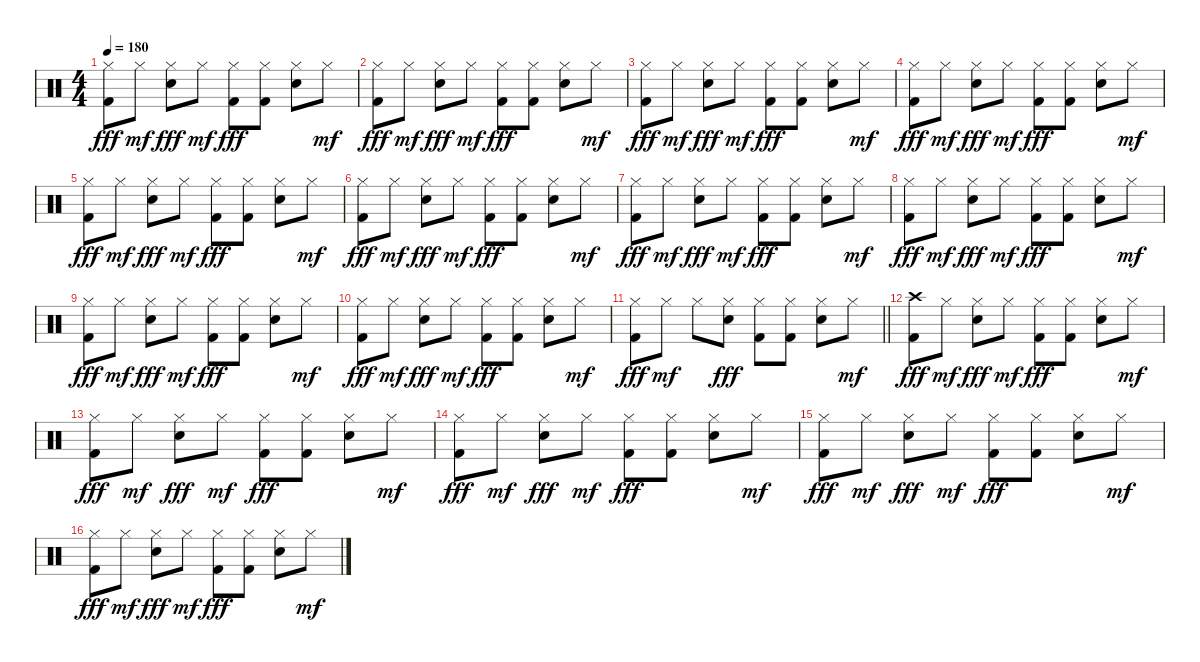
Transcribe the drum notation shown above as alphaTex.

\track "" {instrument percussion}
\staff {score}
\articulation defaults
\ts (4 4)
\tempo 180
\clef neutral
\ks c
("Hi-Hat (closed)" "Kick (hit) 2").8{dy fff} "Hi-Hat (closed)".8{dy mf} ("Hi-Hat (closed)" "Snare (hit) 2").8{dy fff} "Hi-Hat (closed)".8{dy mf} ("Hi-Hat (closed)" "Kick (hit) 2").8{dy fff} ("Hi-Hat (closed)" "Kick (hit) 2").8 ("Hi-Hat (closed)" "Snare (hit) 2").8 "Hi-Hat (closed)".8{dy mf} |
("Hi-Hat (closed)" "Kick (hit) 2").8{dy fff} "Hi-Hat (closed)".8{dy mf} ("Hi-Hat (closed)" "Snare (hit) 2").8{dy fff} "Hi-Hat (closed)".8{dy mf} ("Hi-Hat (closed)" "Kick (hit) 2").8{dy fff} ("Hi-Hat (closed)" "Kick (hit) 2").8 ("Hi-Hat (closed)" "Snare (hit) 2").8 "Hi-Hat (closed)".8{dy mf} |
("Hi-Hat (closed)" "Kick (hit) 2").8{dy fff} "Hi-Hat (closed)".8{dy mf} ("Hi-Hat (closed)" "Snare (hit) 2").8{dy fff} "Hi-Hat (closed)".8{dy mf} ("Hi-Hat (closed)" "Kick (hit) 2").8{dy fff} ("Hi-Hat (closed)" "Kick (hit) 2").8 ("Hi-Hat (closed)" "Snare (hit) 2").8 "Hi-Hat (closed)".8{dy mf} |
("Hi-Hat (closed)" "Kick (hit) 2").8{dy fff} "Hi-Hat (closed)".8{dy mf} ("Hi-Hat (closed)" "Snare (hit) 2").8{dy fff} "Hi-Hat (closed)".8{dy mf} ("Hi-Hat (closed)" "Kick (hit) 2").8{dy fff} ("Hi-Hat (closed)" "Kick (hit) 2").8 ("Hi-Hat (closed)" "Snare (hit) 2").8 "Hi-Hat (closed)".8{dy mf} |
("Hi-Hat (closed)" "Kick (hit) 2").8{dy fff} "Hi-Hat (closed)".8{dy mf} ("Hi-Hat (closed)" "Snare (hit) 2").8{dy fff} "Hi-Hat (closed)".8{dy mf} ("Hi-Hat (closed)" "Kick (hit) 2").8{dy fff} ("Hi-Hat (closed)" "Kick (hit) 2").8 ("Hi-Hat (closed)" "Snare (hit) 2").8 "Hi-Hat (closed)".8{dy mf} |
("Hi-Hat (closed)" "Kick (hit) 2").8{dy fff} "Hi-Hat (closed)".8{dy mf} ("Hi-Hat (closed)" "Snare (hit) 2").8{dy fff} "Hi-Hat (closed)".8{dy mf} ("Hi-Hat (closed)" "Kick (hit) 2").8{dy fff} ("Hi-Hat (closed)" "Kick (hit) 2").8 ("Hi-Hat (closed)" "Snare (hit) 2").8 "Hi-Hat (closed)".8{dy mf} |
("Hi-Hat (closed)" "Kick (hit) 2").8{dy fff} "Hi-Hat (closed)".8{dy mf} ("Hi-Hat (closed)" "Snare (hit) 2").8{dy fff} "Hi-Hat (closed)".8{dy mf} ("Hi-Hat (closed)" "Kick (hit) 2").8{dy fff} ("Hi-Hat (closed)" "Kick (hit) 2").8 ("Hi-Hat (closed)" "Snare (hit) 2").8 "Hi-Hat (closed)".8{dy mf} |
("Hi-Hat (closed)" "Kick (hit) 2").8{dy fff} "Hi-Hat (closed)".8{dy mf} ("Hi-Hat (closed)" "Snare (hit) 2").8{dy fff} "Hi-Hat (closed)".8{dy mf} ("Hi-Hat (closed)" "Kick (hit) 2").8{dy fff} ("Hi-Hat (closed)" "Kick (hit) 2").8 ("Hi-Hat (closed)" "Snare (hit) 2").8 "Hi-Hat (closed)".8{dy mf} |
("Hi-Hat (closed)" "Kick (hit) 2").8{dy fff} "Hi-Hat (closed)".8{dy mf} ("Hi-Hat (closed)" "Snare (hit) 2").8{dy fff} "Hi-Hat (closed)".8{dy mf} ("Hi-Hat (closed)" "Kick (hit) 2").8{dy fff} ("Hi-Hat (closed)" "Kick (hit) 2").8 ("Hi-Hat (closed)" "Snare (hit) 2").8 "Hi-Hat (closed)".8{dy mf} |
("Hi-Hat (closed)" "Kick (hit) 2").8{dy fff} "Hi-Hat (closed)".8{dy mf} ("Hi-Hat (closed)" "Snare (hit) 2").8{dy fff} "Hi-Hat (closed)".8{dy mf} ("Hi-Hat (closed)" "Kick (hit) 2").8{dy fff} ("Hi-Hat (closed)" "Kick (hit) 2").8 ("Hi-Hat (closed)" "Snare (hit) 2").8 "Hi-Hat (closed)".8{dy mf} |
\barLineRight lightlight
("Hi-Hat (closed)" "Kick (hit) 2").8{dy fff} "Hi-Hat (closed)".8{dy mf} "Hi-Hat (closed)".8 ("Hi-Hat (closed)" "Snare (hit) 2").8{dy fff} ("Hi-Hat (closed)" "Kick (hit) 2").8 ("Hi-Hat (closed)" "Kick (hit) 2").8 ("Hi-Hat (closed)" "Snare (hit) 2").8 "Hi-Hat (closed)".8{dy mf} |
\section ("" "")
("Crash high (hit)" "Kick (hit) 2").8{dy fff} "Hi-Hat (closed)".8{dy mf} ("Hi-Hat (closed)" "Snare (hit) 2").8{dy fff} "Hi-Hat (closed)".8{dy mf} ("Hi-Hat (closed)" "Kick (hit) 2").8{dy fff} ("Hi-Hat (closed)" "Kick (hit) 2").8 ("Hi-Hat (closed)" "Snare (hit) 2").8 "Hi-Hat (closed)".8{dy mf} |
("Hi-Hat (closed)" "Kick (hit) 2").8{dy fff} "Hi-Hat (closed)".8{dy mf} ("Hi-Hat (closed)" "Snare (hit) 2").8{dy fff} "Hi-Hat (closed)".8{dy mf} ("Hi-Hat (closed)" "Kick (hit) 2").8{dy fff} ("Hi-Hat (closed)" "Kick (hit) 2").8 ("Hi-Hat (closed)" "Snare (hit) 2").8 "Hi-Hat (closed)".8{dy mf} |
("Hi-Hat (closed)" "Kick (hit) 2").8{dy fff} "Hi-Hat (closed)".8{dy mf} ("Hi-Hat (closed)" "Snare (hit) 2").8{dy fff} "Hi-Hat (closed)".8{dy mf} ("Hi-Hat (closed)" "Kick (hit) 2").8{dy fff} ("Hi-Hat (closed)" "Kick (hit) 2").8 ("Hi-Hat (closed)" "Snare (hit) 2").8 "Hi-Hat (closed)".8{dy mf} |
("Hi-Hat (closed)" "Kick (hit) 2").8{dy fff} "Hi-Hat (closed)".8{dy mf} ("Hi-Hat (closed)" "Snare (hit) 2").8{dy fff} "Hi-Hat (closed)".8{dy mf} ("Hi-Hat (closed)" "Kick (hit) 2").8{dy fff} ("Hi-Hat (closed)" "Kick (hit) 2").8 ("Hi-Hat (closed)" "Snare (hit) 2").8 "Hi-Hat (closed)".8{dy mf} |
("Hi-Hat (closed)" "Kick (hit) 2").8{dy fff} "Hi-Hat (closed)".8{dy mf} ("Hi-Hat (closed)" "Snare (hit) 2").8{dy fff} "Hi-Hat (closed)".8{dy mf} ("Hi-Hat (closed)" "Kick (hit) 2").8{dy fff} ("Hi-Hat (closed)" "Kick (hit) 2").8 ("Hi-Hat (closed)" "Snare (hit) 2").8 "Hi-Hat (closed)".8{dy mf}
